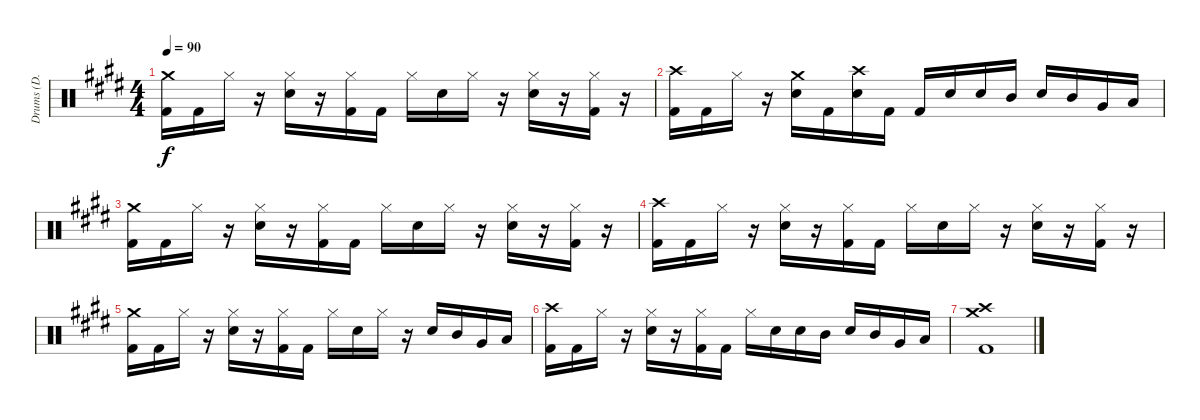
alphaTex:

\track ("Drums (D. Adair)" "Drums (D. ") {instrument percussion}
\staff {score}
\articulation defaults
\ts (4 4)
\tempo 90
\clef neutral
\ks e
("Crash medium (hit)" "Kick (hit) 2").16{dy f} "Kick (hit) 2".16 "Hi-Hat (closed)".16 r.16 ("Hi-Hat (closed)" "Snare (hit) 2").16 r.16 ("Hi-Hat (closed)" "Kick (hit) 2").16 "Kick (hit) 2".16 "Hi-Hat (closed)".16 "Snare (hit) 2".16 "Hi-Hat (closed)".16 r.16 ("Hi-Hat (closed)" "Snare (hit) 2").16 r.16 ("Hi-Hat (closed)" "Kick (hit) 2").16 r.16 |
("Crash high (hit)" "Kick (hit) 2").16 "Kick (hit) 2".16 "Hi-Hat (closed)".16 r.16 ("Crash medium (hit)" "Snare (hit) 2").16 "Kick (hit) 2".16 ("Crash high (hit)" "Snare (hit) 2").16 "Kick (hit) 2".16 "Kick (hit) 2".16 "Snare (hit) 2".16 "Snare (hit) 2".16 "Mid Tom (hit)".16 "Snare (hit) 2".16 "Mid Tom (hit)".16 "Very Low Tom (hit)".16 "Low Floor Tom (hit)".16 |
("Crash medium (hit)" "Kick (hit) 2").16 "Kick (hit) 2".16 "Hi-Hat (closed)".16 r.16 ("Hi-Hat (closed)" "Snare (hit) 2").16 r.16 ("Hi-Hat (closed)" "Kick (hit) 2").16 "Kick (hit) 2".16 "Hi-Hat (closed)".16 "Snare (hit) 2".16 "Hi-Hat (closed)".16 r.16 ("Hi-Hat (closed)" "Snare (hit) 2").16 r.16 ("Hi-Hat (closed)" "Kick (hit) 2").16 r.16 |
("Crash high (hit)" "Kick (hit) 2").16 "Kick (hit) 2".16 "Hi-Hat (closed)".16 r.16 ("Hi-Hat (closed)" "Snare (hit) 2").16 r.16 ("Hi-Hat (closed)" "Kick (hit) 2").16 "Kick (hit) 2".16 "Hi-Hat (closed)".16 "Snare (hit) 2".16 "Hi-Hat (closed)".16 r.16 ("Hi-Hat (closed)" "Snare (hit) 2").16 r.16 ("Hi-Hat (closed)" "Kick (hit) 2").16 r.16 |
("Crash medium (hit)" "Kick (hit) 2").16 "Kick (hit) 2".16 "Hi-Hat (closed)".16 r.16 ("Hi-Hat (closed)" "Snare (hit) 2").16 r.16 ("Hi-Hat (closed)" "Kick (hit) 2").16 "Kick (hit) 2".16 "Hi-Hat (closed)".16 "Snare (hit) 2".16 "Hi-Hat (closed)".16 r.16 "Snare (hit) 2".16 "Mid Tom (hit)".16 "Very Low Tom (hit)".16 "Low Floor Tom (hit)".16 |
("Crash high (hit)" "Kick (hit) 2").16 "Kick (hit) 2".16 "Hi-Hat (closed)".16 r.16 ("Hi-Hat (closed)" "Snare (hit) 2").16 r.16 ("Hi-Hat (closed)" "Kick (hit) 2").16 "Kick (hit) 2".16 "Hi-Hat (closed)".16 "Snare (hit) 2".16 "Snare (hit) 2".16 "Mid Tom (hit)".16 "Snare (hit) 2".16 "Mid Tom (hit)".16 "Very Low Tom (hit)".16 "Low Floor Tom (hit)".16 |
("Crash high (hit)" "Crash medium (hit)" "Kick (hit) 2").1
